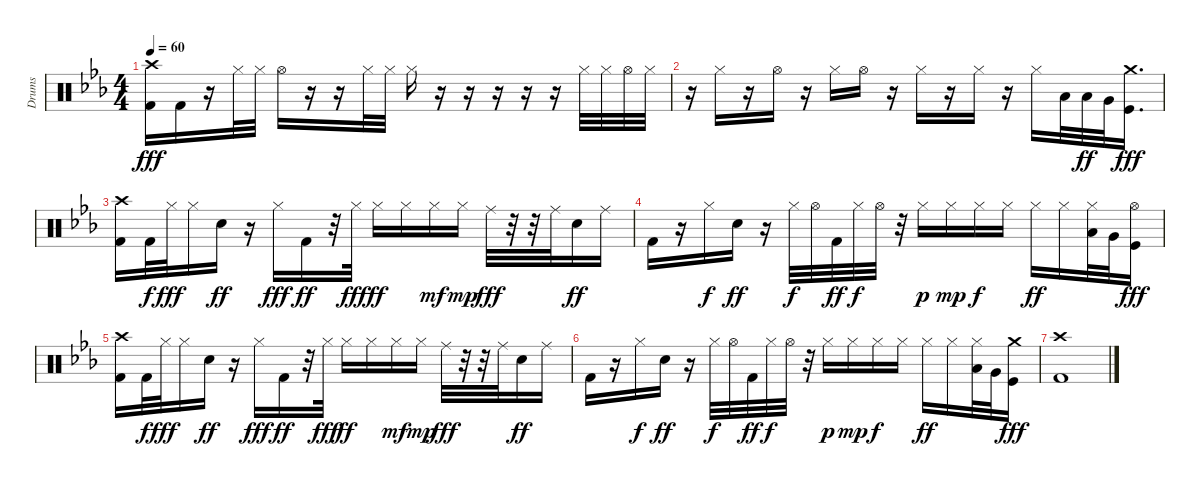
\track ("Drums" "Drums") {instrument percussion}
\staff {score}
\articulation defaults
\ts (4 4)
\tempo 60
\clef neutral
\ks eb
("Crash high (hit)" "Kick (hit) 2").16{dy fff} "Kick (hit) 2".16 r.16 "Hi-Hat (closed)".32 "Hi-Hat (closed)".32 "Hi-Hat (open)".16 r.16 r.16 "Hi-Hat (closed)".32 "Hi-Hat (closed)".32 "Hi-Hat (closed)".16 r.16 r.16 r.16 r.16 r.16 "Hi-Hat (closed)".32 "Hi-Hat (closed)".32 "Hi-Hat (open)".32 "Hi-Hat (closed)".32 |
r.16 "Hi-Hat (closed)".16 r.16 "Hi-Hat (open)".16 r.16 "Hi-Hat (closed)".16 "Hi-Hat (open)".16 r.16 "Hi-Hat (closed)".16 r.16 "Hi-Hat (closed)".16 r.16 "Hi-Hat (closed)".16 "Low Tom (hit)".32 "Low Tom (hit)".32{dy ff} "Very Low Tom (hit)".32 ("Crash medium (hit)" "Kick (hit)").16{d dy fff} |
("Crash high (hit)" "Kick (hit) 2").16 "Kick (hit) 2".32{dy f} "Hi-Hat (closed)".32{dy fff} "Hi-Hat (closed)".16 "Electric Snare (hit)".16{dy ff} r.16 "Hi-Hat (closed)".16{dy fff} "Kick (hit) 2".16{dy ff} r.32 "Hi-Hat (closed)".32{dy fff} "Hi-Hat (closed)".16{dy ff} "Hi-Hat (closed)".16 "Hi-Hat (closed)".16{dy mf} "Hi-Hat (closed)".16{dy mp} "Ride (middle)".32{dy fff} r.32 r.32 "Ride (middle)".32 "Electric Snare (hit)".16{dy ff} "Ride (middle)".16 |
"Kick (hit) 2".16 r.16 "Hi-Hat (closed)".16{dy f} "Electric Snare (hit)".16{dy ff} r.16 "Hi-Hat (closed)".32{dy f} "Hi-Hat (open)".32 "Kick (hit) 2".32{dy ff} "Hi-Hat (closed)".32{dy f} "Hi-Hat (open)".32 r.32 "Hi-Hat (closed)".16{dy p} "Hi-Hat (closed)".16{dy mp} "Hi-Hat (closed)".16{dy f} "Hi-Hat (closed)".16 "Hi-Hat (closed)".16{dy ff} "Hi-Hat (closed)".16 ("Hi-Hat (closed)" "Low Tom (hit)").32 "Very Low Tom (hit)".32 ("Hi-Hat (open)" "Kick (hit)").16{dy fff} |
("Crash high (hit)" "Kick (hit) 2").16 "Kick (hit) 2".32{dy f} "Hi-Hat (closed)".32{dy fff} "Hi-Hat (closed)".16 "Electric Snare (hit)".16{dy ff} r.16 "Hi-Hat (closed)".16{dy fff} "Kick (hit) 2".16{dy ff} r.32 "Hi-Hat (closed)".32{dy fff} "Hi-Hat (closed)".16{dy ff} "Hi-Hat (closed)".16 "Hi-Hat (closed)".16{dy mf} "Hi-Hat (closed)".16{dy mp} "Ride (middle)".32{dy fff} r.32 r.32 "Ride (middle)".32 "Electric Snare (hit)".16{dy ff} "Ride (middle)".16 |
"Kick (hit) 2".16 r.16 "Hi-Hat (closed)".16{dy f} "Electric Snare (hit)".16{dy ff} r.16 "Hi-Hat (closed)".32{dy f} "Hi-Hat (open)".32 "Kick (hit) 2".32{dy ff} "Hi-Hat (closed)".32{dy f} "Hi-Hat (open)".32 r.32 "Hi-Hat (closed)".16{dy p} "Hi-Hat (closed)".16{dy mp} "Hi-Hat (closed)".16{dy f} "Hi-Hat (closed)".16 "Hi-Hat (closed)".16{dy ff} "Hi-Hat (closed)".16 ("Hi-Hat (closed)" "Low Tom (hit)").32 "Very Low Tom (hit)".32 ("Crash medium (hit)" "Kick (hit)").16{dy fff} |
("Crash high (hit)" "Kick (hit) 2").1
